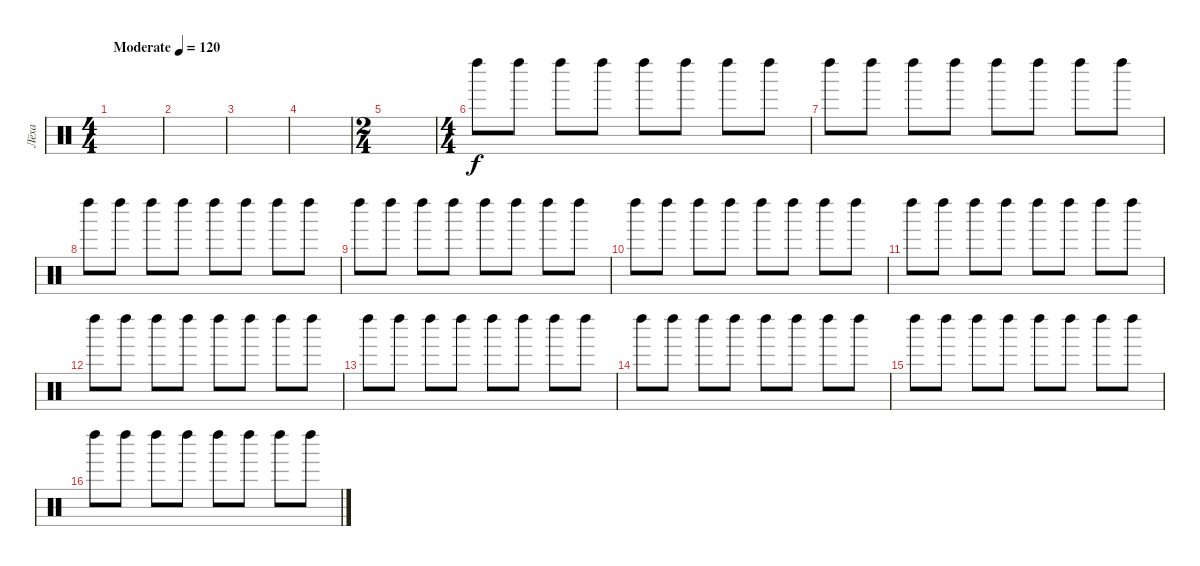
\track ("Лёха" "Лёха") {instrument percussion}
\staff {score}
\articulation defaults
\ts (4 4)
\tempo (120 "Moderate")
\clef neutral
\ks c
|
|
|
|
\ts (2 4)
|
\ts (4 4)
"Left Maraca (hit)".8 "Left Maraca (hit)".8 "Left Maraca (hit)".8 "Left Maraca (hit)".8 "Left Maraca (hit)".8 "Left Maraca (hit)".8 "Left Maraca (hit)".8 "Left Maraca (hit)".8 |
"Left Maraca (hit)".8 "Left Maraca (hit)".8 "Left Maraca (hit)".8 "Left Maraca (hit)".8 "Left Maraca (hit)".8 "Left Maraca (hit)".8 "Left Maraca (hit)".8 "Left Maraca (hit)".8 |
"Left Maraca (hit)".8 "Left Maraca (hit)".8 "Left Maraca (hit)".8 "Left Maraca (hit)".8 "Left Maraca (hit)".8 "Left Maraca (hit)".8 "Left Maraca (hit)".8 "Left Maraca (hit)".8 |
"Left Maraca (hit)".8 "Left Maraca (hit)".8 "Left Maraca (hit)".8 "Left Maraca (hit)".8 "Left Maraca (hit)".8 "Left Maraca (hit)".8 "Left Maraca (hit)".8 "Left Maraca (hit)".8 |
"Left Maraca (hit)".8 "Left Maraca (hit)".8 "Left Maraca (hit)".8 "Left Maraca (hit)".8 "Left Maraca (hit)".8 "Left Maraca (hit)".8 "Left Maraca (hit)".8 "Left Maraca (hit)".8 |
"Left Maraca (hit)".8 "Left Maraca (hit)".8 "Left Maraca (hit)".8 "Left Maraca (hit)".8 "Left Maraca (hit)".8 "Left Maraca (hit)".8 "Left Maraca (hit)".8 "Left Maraca (hit)".8 |
"Left Maraca (hit)".8 "Left Maraca (hit)".8 "Left Maraca (hit)".8 "Left Maraca (hit)".8 "Left Maraca (hit)".8 "Left Maraca (hit)".8 "Left Maraca (hit)".8 "Left Maraca (hit)".8 |
"Left Maraca (hit)".8 "Left Maraca (hit)".8 "Left Maraca (hit)".8 "Left Maraca (hit)".8 "Left Maraca (hit)".8 "Left Maraca (hit)".8 "Left Maraca (hit)".8 "Left Maraca (hit)".8 |
"Left Maraca (hit)".8 "Left Maraca (hit)".8 "Left Maraca (hit)".8 "Left Maraca (hit)".8 "Left Maraca (hit)".8 "Left Maraca (hit)".8 "Left Maraca (hit)".8 "Left Maraca (hit)".8 |
"Left Maraca (hit)".8 "Left Maraca (hit)".8 "Left Maraca (hit)".8 "Left Maraca (hit)".8 "Left Maraca (hit)".8 "Left Maraca (hit)".8 "Left Maraca (hit)".8 "Left Maraca (hit)".8 |
"Left Maraca (hit)".8 "Left Maraca (hit)".8 "Left Maraca (hit)".8 "Left Maraca (hit)".8 "Left Maraca (hit)".8 "Left Maraca (hit)".8 "Left Maraca (hit)".8 "Left Maraca (hit)".8
